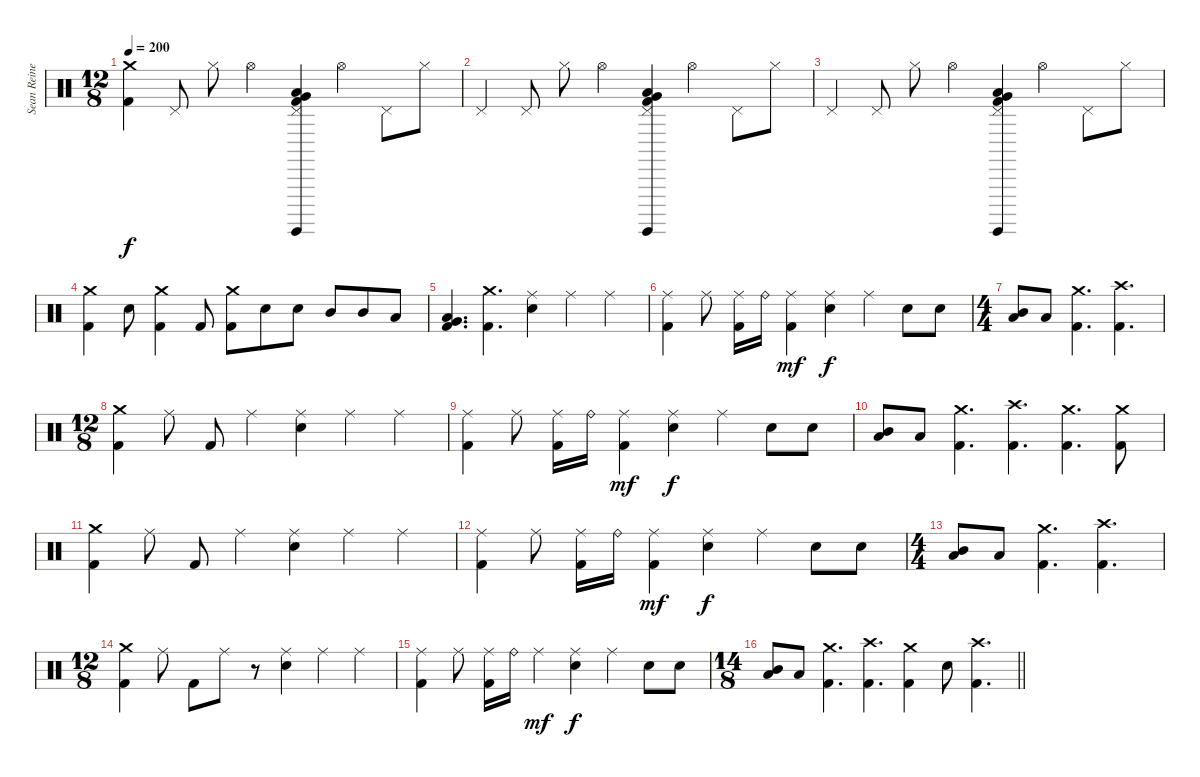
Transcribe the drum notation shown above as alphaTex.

\track ("Sean Reinert" "Sean Reine") {instrument percussion}
\staff {score}
\articulation defaults
\ts (12 8)
\tempo 200
\clef neutral
\ks c
("Crash medium (hit)" "Kick (hit) 2").4{dy f} "Pedal Hi-Hat (hit)".8 "Hi-Hat (closed)".8 "Hi-Hat (open)".4 ("Pedal Hi-Hat (hit)" "Low Floor Tom (hit)" "Very Low Tom (hit)" "Surdo (hit)" "Kick (hit) 2").4 "Hi-Hat (open)".4 "Pedal Hi-Hat (hit)".8 "Hi-Hat (closed)".8 |
"Pedal Hi-Hat (hit)".4 "Pedal Hi-Hat (hit)".8 "Hi-Hat (closed)".8 "Hi-Hat (open)".4 ("Pedal Hi-Hat (hit)" "Low Floor Tom (hit)" "Very Low Tom (hit)" "Surdo (hit)" "Kick (hit) 2").4 "Hi-Hat (open)".4 "Pedal Hi-Hat (hit)".8 "Hi-Hat (closed)".8 |
"Pedal Hi-Hat (hit)".4 "Pedal Hi-Hat (hit)".8 "Hi-Hat (closed)".8 "Hi-Hat (open)".4 ("Pedal Hi-Hat (hit)" "Low Floor Tom (hit)" "Very Low Tom (hit)" "Surdo (hit)" "Kick (hit) 2").4 "Hi-Hat (open)".4 "Pedal Hi-Hat (hit)".8 "Hi-Hat (closed)".8 |
("Crash medium (hit)" "Kick (hit) 2").4 "Snare (hit) 2".8 ("Crash medium (hit)" "Kick (hit) 2").4 "Kick (hit) 2".8 ("Crash medium (hit)" "Kick (hit) 2").8 "Snare (hit) 2".8 "Snare (hit) 2".8 "Mid Tom (hit)".8 "Mid Tom (hit)".8 "Low Tom (hit)".8 |
("Very Low Tom (hit)" "Low Floor Tom (hit)" "Kick (hit) 2").4{d} ("Crash medium (hit)" "Kick (hit) 2").4{d} ("Ride (middle)" "Snare (hit) 2").4 "Ride (middle)".4 "Ride (middle)".4 |
("Ride (middle)" "Kick (hit) 2").4 "Ride (middle)".8 ("Ride (middle)" "Kick (hit) 2").16 "Ride (bell)".16 ("Ride (middle)" "Kick (hit) 2").4{dy mf} ("Ride (middle)" "Snare (hit) 2").4{dy f} "Ride (middle)".4 "Snare (hit) 2".8 "Snare (hit) 2".8 |
\ts (4 4)
("Mid Tom (hit)" "Low Tom (hit)").8 "Low Tom (hit)".8 ("Crash medium (hit)" "Kick (hit) 2").4{d} ("Crash high (hit)" "Kick (hit) 2").4{d} |
\ts (12 8)
("Crash medium (hit)" "Kick (hit) 2").4 "Ride (middle)".8 "Kick (hit) 2".8 "Ride (middle)".4 ("Ride (middle)" "Snare (hit) 2").4 "Ride (middle)".4 "Ride (middle)".4 |
("Ride (middle)" "Kick (hit) 2").4 "Ride (middle)".8 ("Ride (middle)" "Kick (hit) 2").16 "Ride (bell)".16 ("Ride (middle)" "Kick (hit) 2").4{dy mf} ("Ride (middle)" "Snare (hit) 2").4{dy f} "Ride (middle)".4 "Snare (hit) 2".8 "Snare (hit) 2".8 |
("Mid Tom (hit)" "Low Tom (hit)").8 "Low Tom (hit)".8 ("Crash medium (hit)" "Kick (hit) 2").4{d} ("Crash high (hit)" "Kick (hit) 2").4{d} ("Crash medium (hit)" "Kick (hit) 2").4{d} ("Crash medium (hit)" "Kick (hit) 2").8 |
("Crash medium (hit)" "Kick (hit) 2").4 "Ride (middle)".8 "Kick (hit) 2".8 "Ride (middle)".4 ("Ride (middle)" "Snare (hit) 2").4 "Ride (middle)".4 "Ride (middle)".4 |
("Ride (middle)" "Kick (hit) 2").4 "Ride (middle)".8 ("Ride (middle)" "Kick (hit) 2").16 "Ride (bell)".16 ("Ride (middle)" "Kick (hit) 2").4{dy mf} ("Ride (middle)" "Snare (hit) 2").4{dy f} "Ride (middle)".4 "Snare (hit) 2".8 "Snare (hit) 2".8 |
\ts (4 4)
("Mid Tom (hit)" "Low Tom (hit)").8 "Low Tom (hit)".8 ("Crash medium (hit)" "Kick (hit) 2").4{d} ("Crash high (hit)" "Kick (hit) 2").4{d} |
\ts (12 8)
("Crash medium (hit)" "Kick (hit) 2").4 "Ride (middle)".8 "Kick (hit) 2".8 "Ride (middle)".8 r.8 ("Ride (middle)" "Snare (hit) 2").4 "Ride (middle)".4 "Ride (middle)".4 |
("Ride (middle)" "Kick (hit) 2").4 "Ride (middle)".8 ("Ride (middle)" "Kick (hit) 2").16 "Ride (bell)".16 "Ride (middle)".4{dy mf} ("Ride (middle)" "Snare (hit) 2").4{dy f} "Ride (middle)".4 "Snare (hit) 2".8 "Snare (hit) 2".8 |
\ts (14 8)
\barLineRight lightlight
("Mid Tom (hit)" "Low Tom (hit)").8 "Low Tom (hit)".8 ("Crash medium (hit)" "Kick (hit) 2").4{d} ("Crash high (hit)" "Kick (hit) 2").4{d} ("Crash medium (hit)" "Kick (hit) 2").4 "Snare (hit) 2".8 ("Crash high (hit)" "Kick (hit) 2").4{d}
